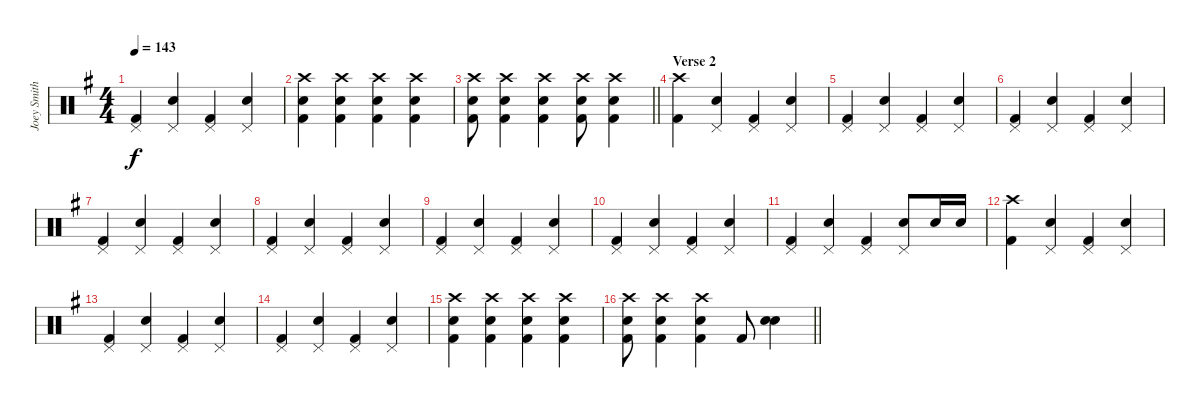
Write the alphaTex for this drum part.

\track ("Joey Smith" "Joey Smith") {instrument percussion}
\staff {score}
\articulation defaults
\ts (4 4)
\tempo 143
\clef neutral
\ks g
("Pedal Hi-Hat (hit)" "Kick (hit) 2").4{dy f} ("Pedal Hi-Hat (hit)" "Snare (hit) 2").4 ("Pedal Hi-Hat (hit)" "Kick (hit) 2").4 ("Pedal Hi-Hat (hit)" "Snare (hit) 2").4 |
("Crash high (hit)" "Snare (hit) 2" "Kick (hit) 2").4 ("Crash high (hit)" "Snare (hit) 2" "Kick (hit) 2").4 ("Crash high (hit)" "Snare (hit) 2" "Kick (hit) 2").4 ("Crash high (hit)" "Snare (hit) 2" "Kick (hit) 2").4 |
\barLineRight lightlight
("Crash high (hit)" "Snare (hit) 2" "Kick (hit) 2").8 ("Crash high (hit)" "Snare (hit) 2" "Kick (hit) 2").4 ("Crash high (hit)" "Snare (hit) 2" "Kick (hit) 2").4 ("Crash high (hit)" "Snare (hit) 2" "Kick (hit) 2").8 ("Crash high (hit)" "Snare (hit) 2" "Kick (hit) 2").4 |
\section ("" "Verse 2")
("Crash high (hit)" "Kick (hit) 2").4 ("Pedal Hi-Hat (hit)" "Snare (hit) 2").4 ("Pedal Hi-Hat (hit)" "Kick (hit) 2").4 ("Pedal Hi-Hat (hit)" "Snare (hit) 2").4 |
("Pedal Hi-Hat (hit)" "Kick (hit) 2").4 ("Pedal Hi-Hat (hit)" "Snare (hit) 2").4 ("Pedal Hi-Hat (hit)" "Kick (hit) 2").4 ("Pedal Hi-Hat (hit)" "Snare (hit) 2").4 |
("Pedal Hi-Hat (hit)" "Kick (hit) 2").4 ("Pedal Hi-Hat (hit)" "Snare (hit) 2").4 ("Pedal Hi-Hat (hit)" "Kick (hit) 2").4 ("Pedal Hi-Hat (hit)" "Snare (hit) 2").4 |
("Pedal Hi-Hat (hit)" "Kick (hit) 2").4 ("Pedal Hi-Hat (hit)" "Snare (hit) 2").4 ("Pedal Hi-Hat (hit)" "Kick (hit) 2").4 ("Pedal Hi-Hat (hit)" "Snare (hit) 2").4 |
("Pedal Hi-Hat (hit)" "Kick (hit) 2").4 ("Pedal Hi-Hat (hit)" "Snare (hit) 2").4 ("Pedal Hi-Hat (hit)" "Kick (hit) 2").4 ("Pedal Hi-Hat (hit)" "Snare (hit) 2").4 |
("Pedal Hi-Hat (hit)" "Kick (hit) 2").4 ("Pedal Hi-Hat (hit)" "Snare (hit) 2").4 ("Pedal Hi-Hat (hit)" "Kick (hit) 2").4 ("Pedal Hi-Hat (hit)" "Snare (hit) 2").4 |
("Pedal Hi-Hat (hit)" "Kick (hit) 2").4 ("Pedal Hi-Hat (hit)" "Snare (hit) 2").4 ("Pedal Hi-Hat (hit)" "Kick (hit) 2").4 ("Pedal Hi-Hat (hit)" "Snare (hit) 2").4 |
("Pedal Hi-Hat (hit)" "Kick (hit) 2").4 ("Pedal Hi-Hat (hit)" "Snare (hit) 2").4 ("Pedal Hi-Hat (hit)" "Kick (hit) 2").4 ("Pedal Hi-Hat (hit)" "Snare (hit) 2").8 "Snare (hit) 2".16 "Snare (hit) 2".16 |
("Crash high (hit)" "Kick (hit) 2").4 ("Pedal Hi-Hat (hit)" "Snare (hit) 2").4 ("Pedal Hi-Hat (hit)" "Kick (hit) 2").4 ("Pedal Hi-Hat (hit)" "Snare (hit) 2").4 |
("Pedal Hi-Hat (hit)" "Kick (hit) 2").4 ("Pedal Hi-Hat (hit)" "Snare (hit) 2").4 ("Pedal Hi-Hat (hit)" "Kick (hit) 2").4 ("Pedal Hi-Hat (hit)" "Snare (hit) 2").4 |
("Pedal Hi-Hat (hit)" "Kick (hit) 2").4 ("Pedal Hi-Hat (hit)" "Snare (hit) 2").4 ("Pedal Hi-Hat (hit)" "Kick (hit) 2").4 ("Pedal Hi-Hat (hit)" "Snare (hit) 2").4 |
("Crash high (hit)" "Snare (hit) 2" "Kick (hit) 2").4 ("Crash high (hit)" "Snare (hit) 2" "Kick (hit) 2").4 ("Crash high (hit)" "Snare (hit) 2" "Kick (hit) 2").4 ("Crash high (hit)" "Snare (hit) 2" "Kick (hit) 2").4 |
\barLineRight lightlight
("Crash high (hit)" "Snare (hit) 2" "Kick (hit) 2").8 ("Crash high (hit)" "Snare (hit) 2" "Kick (hit) 2").4 ("Crash high (hit)" "Snare (hit) 2" "Kick (hit) 2").4 "Kick (hit) 2".8 ("Snare (hit) 2" "Snare (hit) 2").4{bd 240}
